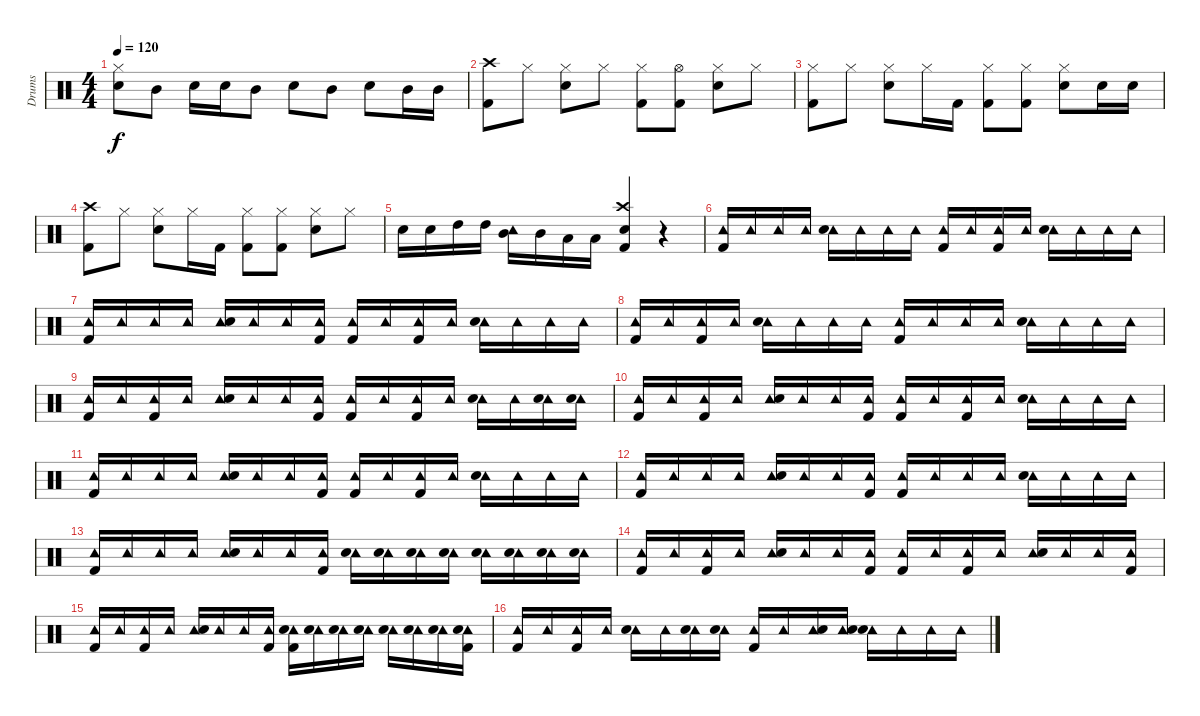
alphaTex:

\track ("Drums" "Drums") {instrument percussion}
\staff {score}
\articulation defaults
\ts (4 4)
\tempo 120
\clef neutral
\ks c
("Hi-Hat (closed)" "Snare (hit) 2").8{dy f} "Mid Tom (hit)".8 "Snare (hit) 2".16 "Snare (hit) 2".16 "Mid Tom (hit)".8 "Snare (hit) 2".8 "Mid Tom (hit)".8 "Snare (hit) 2".8 "Mid Tom (hit)".16 "Mid Tom (hit)".16 |
("Crash high (hit)" "Kick (hit) 2").8 "Hi-Hat (closed)".8 ("Hi-Hat (closed)" "Snare (hit) 2").8 "Hi-Hat (closed)".8 ("Hi-Hat (closed)" "Kick (hit) 2").8 ("Hi-Hat (open)" "Kick (hit) 2").8 ("Hi-Hat (closed)" "Snare (hit) 2").8 "Hi-Hat (closed)".8 |
("Hi-Hat (closed)" "Kick (hit) 2").8 "Hi-Hat (closed)".8 ("Hi-Hat (closed)" "Snare (hit) 2").8 "Hi-Hat (closed)".16 "Kick (hit) 2".16 ("Hi-Hat (closed)" "Kick (hit) 2").8 ("Hi-Hat (closed)" "Kick (hit) 2").8 ("Hi-Hat (closed)" "Snare (hit) 2").8 "Snare (hit) 2".16 "Snare (hit) 2".16 |
("Crash high (hit)" "Kick (hit) 2").8 "Hi-Hat (closed)".8 ("Hi-Hat (closed)" "Snare (hit) 2").8 "Hi-Hat (closed)".16 "Kick (hit) 2".16 ("Hi-Hat (closed)" "Kick (hit) 2").8 ("Hi-Hat (closed)" "Kick (hit) 2").8 ("Hi-Hat (closed)" "Snare (hit) 2").8 "Hi-Hat (closed)".8 |
"Snare (hit) 2".16 "Snare (hit) 2".16 "High Tom (hit)".16 "High Tom (hit)".16 ("Tambourine (hit)" "Mid Tom (hit)").16 "Mid Tom (hit)".16 "Low Tom (hit)".16 "Low Tom (hit)".16 ("Crash high (hit)" "Snare (hit) 2" "Kick (hit) 2").4 r.4 |
("Tambourine (hit)" "Kick (hit) 2").16 "Tambourine (hit)".16 "Tambourine (hit)".16 "Tambourine (hit)".16 ("Tambourine (hit)" "Snare (hit) 2").16 "Tambourine (hit)".16 "Tambourine (hit)".16 "Tambourine (hit)".16 ("Tambourine (hit)" "Kick (hit) 2").16 "Tambourine (hit)".16 ("Tambourine (hit)" "Kick (hit) 2").16 "Tambourine (hit)".16 ("Tambourine (hit)" "Snare (hit) 2").16 "Tambourine (hit)".16 "Tambourine (hit)".16 "Tambourine (hit)".16 |
("Tambourine (hit)" "Kick (hit) 2").16 "Tambourine (hit)".16 "Tambourine (hit)".16 "Tambourine (hit)".16 ("Tambourine (hit)" "Snare (hit) 2").16 "Tambourine (hit)".16 "Tambourine (hit)".16 ("Tambourine (hit)" "Kick (hit) 2").16 ("Tambourine (hit)" "Kick (hit) 2").16 "Tambourine (hit)".16 ("Tambourine (hit)" "Kick (hit) 2").16 "Tambourine (hit)".16 ("Tambourine (hit)" "Snare (hit) 2").16 "Tambourine (hit)".16 "Tambourine (hit)".16 "Tambourine (hit)".16 |
("Tambourine (hit)" "Kick (hit) 2").16 "Tambourine (hit)".16 ("Tambourine (hit)" "Kick (hit) 2").16 "Tambourine (hit)".16 ("Tambourine (hit)" "Snare (hit) 2").16 "Tambourine (hit)".16 "Tambourine (hit)".16 "Tambourine (hit)".16 ("Tambourine (hit)" "Kick (hit) 2").16 "Tambourine (hit)".16 "Tambourine (hit)".16 "Tambourine (hit)".16 ("Tambourine (hit)" "Snare (hit) 2").16 "Tambourine (hit)".16 "Tambourine (hit)".16 "Tambourine (hit)".16 |
("Tambourine (hit)" "Kick (hit) 2").16 "Tambourine (hit)".16 ("Tambourine (hit)" "Kick (hit) 2").16 "Tambourine (hit)".16 ("Tambourine (hit)" "Snare (hit) 2").16 "Tambourine (hit)".16 "Tambourine (hit)".16 ("Tambourine (hit)" "Kick (hit) 2").16 ("Tambourine (hit)" "Kick (hit) 2").16 "Tambourine (hit)".16 ("Tambourine (hit)" "Kick (hit) 2").16 "Tambourine (hit)".16 ("Tambourine (hit)" "Snare (hit) 2").16 "Tambourine (hit)".16 ("Tambourine (hit)" "Snare (hit) 2").16 ("Tambourine (hit)" "Snare (hit) 2").16 |
("Tambourine (hit)" "Kick (hit) 2").16 "Tambourine (hit)".16 ("Tambourine (hit)" "Kick (hit) 2").16 "Tambourine (hit)".16 ("Tambourine (hit)" "Snare (hit) 2").16 "Tambourine (hit)".16 "Tambourine (hit)".16 ("Tambourine (hit)" "Kick (hit) 2").16 ("Tambourine (hit)" "Kick (hit) 2").16 "Tambourine (hit)".16 ("Tambourine (hit)" "Kick (hit) 2").16 "Tambourine (hit)".16 ("Tambourine (hit)" "Snare (hit) 2").16 "Tambourine (hit)".16 "Tambourine (hit)".16 "Tambourine (hit)".16 |
("Tambourine (hit)" "Kick (hit) 2").16 "Tambourine (hit)".16 "Tambourine (hit)".16 "Tambourine (hit)".16 ("Tambourine (hit)" "Snare (hit) 2").16 "Tambourine (hit)".16 "Tambourine (hit)".16 ("Tambourine (hit)" "Kick (hit) 2").16 ("Tambourine (hit)" "Kick (hit) 2").16 "Tambourine (hit)".16 ("Tambourine (hit)" "Kick (hit) 2").16 "Tambourine (hit)".16 ("Tambourine (hit)" "Snare (hit) 2").16 "Tambourine (hit)".16 "Tambourine (hit)".16 "Tambourine (hit)".16 |
("Tambourine (hit)" "Kick (hit) 2").16 "Tambourine (hit)".16 "Tambourine (hit)".16 "Tambourine (hit)".16 ("Tambourine (hit)" "Snare (hit) 2").16 "Tambourine (hit)".16 "Tambourine (hit)".16 ("Tambourine (hit)" "Kick (hit) 2").16 ("Tambourine (hit)" "Kick (hit) 2").16 "Tambourine (hit)".16 "Tambourine (hit)".16 "Tambourine (hit)".16 ("Tambourine (hit)" "Snare (hit) 2").16 "Tambourine (hit)".16 "Tambourine (hit)".16 "Tambourine (hit)".16 |
("Tambourine (hit)" "Kick (hit) 2").16 "Tambourine (hit)".16 "Tambourine (hit)".16 "Tambourine (hit)".16 ("Tambourine (hit)" "Snare (hit) 2").16 "Tambourine (hit)".16 "Tambourine (hit)".16 ("Tambourine (hit)" "Kick (hit) 2").16 ("Tambourine (hit)" "Snare (hit) 2").16 ("Tambourine (hit)" "Snare (hit) 2").16 ("Tambourine (hit)" "Snare (hit) 2").16 ("Tambourine (hit)" "Snare (hit) 2").16 ("Tambourine (hit)" "Snare (hit) 2").16 ("Tambourine (hit)" "Snare (hit) 2").16 ("Tambourine (hit)" "Snare (hit) 2").16 ("Tambourine (hit)" "Snare (hit) 2").16 |
("Tambourine (hit)" "Kick (hit) 2").16 "Tambourine (hit)".16 ("Tambourine (hit)" "Kick (hit) 2").16 "Tambourine (hit)".16 ("Tambourine (hit)" "Snare (hit) 2").16 "Tambourine (hit)".16 "Tambourine (hit)".16 ("Tambourine (hit)" "Kick (hit) 2").16 ("Tambourine (hit)" "Kick (hit) 2").16 "Tambourine (hit)".16 ("Tambourine (hit)" "Kick (hit) 2").16 "Tambourine (hit)".16 ("Tambourine (hit)" "Snare (hit) 2").16 "Tambourine (hit)".16 "Tambourine (hit)".16 ("Tambourine (hit)" "Kick (hit) 2").16 |
("Tambourine (hit)" "Kick (hit) 2").16 "Tambourine (hit)".16 ("Tambourine (hit)" "Kick (hit) 2").16 "Tambourine (hit)".16 ("Tambourine (hit)" "Snare (hit) 2").16 "Tambourine (hit)".16 "Tambourine (hit)".16 ("Tambourine (hit)" "Kick (hit) 2").16 ("Tambourine (hit)" "Snare (hit) 2" "Kick (hit) 2").16 ("Tambourine (hit)" "Snare (hit) 2").16 ("Tambourine (hit)" "Snare (hit) 2").16 ("Tambourine (hit)" "Snare (hit) 2").16 ("Tambourine (hit)" "Snare (hit) 2").16 ("Tambourine (hit)" "Snare (hit) 2").16 ("Tambourine (hit)" "Snare (hit) 2").16 ("Tambourine (hit)" "Snare (hit) 2" "Kick (hit) 2").16 |
("Tambourine (hit)" "Kick (hit) 2").16 "Tambourine (hit)".16 ("Tambourine (hit)" "Kick (hit) 2").16 "Tambourine (hit)".16 ("Tambourine (hit)" "Snare (hit) 2").16 "Tambourine (hit)".16 ("Tambourine (hit)" "Snare (hit) 2").16 ("Tambourine (hit)" "Snare (hit) 2").16 ("Tambourine (hit)" "Kick (hit) 2").16 "Tambourine (hit)".16 ("Tambourine (hit)" "Snare (hit) 2").16 ("Tambourine (hit)" "Snare (hit) 2").16 ("Tambourine (hit)" "Snare (hit) 2").16 "Tambourine (hit)".16 "Tambourine (hit)".16 "Tambourine (hit)".16
